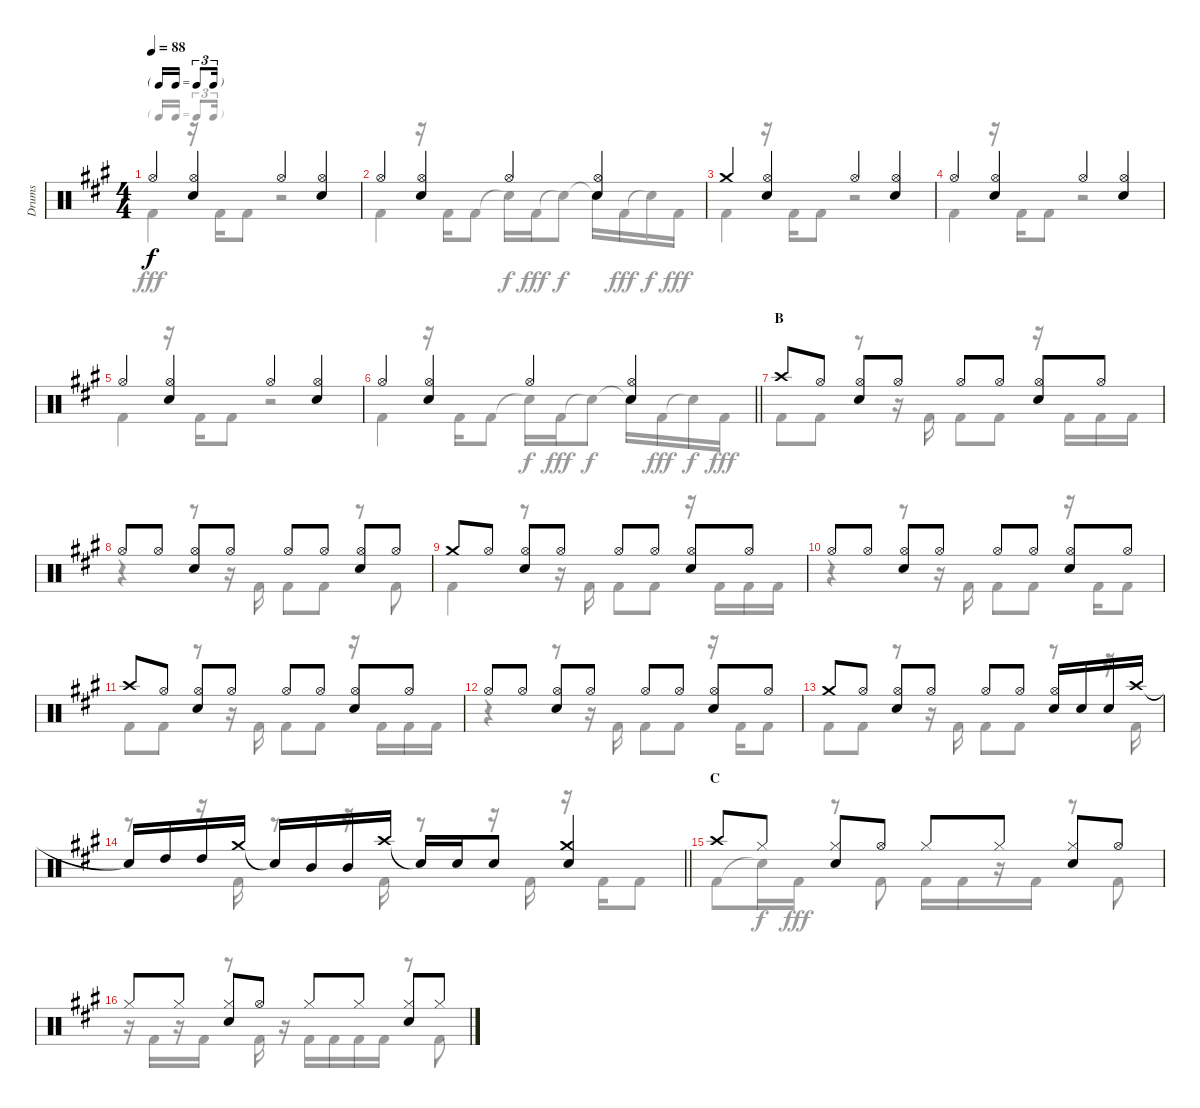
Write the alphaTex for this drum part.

\track ("Drums" "Drums") {instrument percussion}
\staff {score}
\articulation defaults
\voice
\ts (4 4)
\tf triplet16th
\tempo 88
\clef neutral
\ks a "Hi-Hat (open)".4{dy f}
("Hi-Hat (open)" "Snare (hit) 2").4 "Hi-Hat (open)".4 ("Hi-Hat (open)" "Snare (hit) 2").4 |
"Hi-Hat (open)".4 ("Hi-Hat (open)" "Snare (hit) 2").4 "Hi-Hat (open)".4 ("Hi-Hat (open)" "Snare (hit) 2").4 |
"Crash medium (hit)".4 ("Hi-Hat (open)" "Snare (hit) 2").4 "Hi-Hat (open)".4 ("Hi-Hat (open)" "Snare (hit) 2").4 |
"Hi-Hat (open)".4 ("Hi-Hat (open)" "Snare (hit) 2").4 "Hi-Hat (open)".4 ("Hi-Hat (open)" "Snare (hit) 2").4 |
"Hi-Hat (open)".4 ("Hi-Hat (open)" "Snare (hit) 2").4 "Hi-Hat (open)".4 ("Hi-Hat (open)" "Snare (hit) 2").4 |
\barLineRight lightlight "Hi-Hat (open)".4
("Hi-Hat (open)" "Snare (hit) 2").4 "Hi-Hat (open)".4 ("Hi-Hat (open)" "Snare (hit) 2").4 |
\section ("" "B")
"Crash high (hit)".8 "Hi-Hat (open)".8 ("Hi-Hat (open)" "Snare (hit) 2").8 "Hi-Hat (open)".8 "Hi-Hat (open)".8 "Hi-Hat (open)".8 ("Hi-Hat (open)" "Snare (hit) 2").8 "Hi-Hat (open)".8 |
"Hi-Hat (open)".8 "Hi-Hat (open)".8 ("Hi-Hat (open)" "Snare (hit) 2").8 "Hi-Hat (open)".8 "Hi-Hat (open)".8 "Hi-Hat (open)".8 ("Hi-Hat (open)" "Snare (hit) 2").8 "Hi-Hat (open)".8 |
"Crash medium (hit)".8 "Hi-Hat (open)".8 ("Hi-Hat (open)" "Snare (hit) 2").8 "Hi-Hat (open)".8 "Hi-Hat (open)".8 "Hi-Hat (open)".8 ("Hi-Hat (open)" "Snare (hit) 2").8 "Hi-Hat (open)".8 |
"Hi-Hat (open)".8 "Hi-Hat (open)".8 ("Hi-Hat (open)" "Snare (hit) 2").8 "Hi-Hat (open)".8 "Hi-Hat (open)".8 "Hi-Hat (open)".8 ("Hi-Hat (open)" "Snare (hit) 2").8 "Hi-Hat (open)".8 |
"Crash high (hit)".8 "Hi-Hat (open)".8 ("Hi-Hat (open)" "Snare (hit) 2").8 "Hi-Hat (open)".8 "Hi-Hat (open)".8 "Hi-Hat (open)".8 ("Hi-Hat (open)" "Snare (hit) 2").8 "Hi-Hat (open)".8 |
"Hi-Hat (open)".8 "Hi-Hat (open)".8 ("Hi-Hat (open)" "Snare (hit) 2").8 "Hi-Hat (open)".8 "Hi-Hat (open)".8 "Hi-Hat (open)".8 ("Hi-Hat (open)" "Snare (hit) 2").8 "Hi-Hat (open)".8 |
"Crash medium (hit)".8 "Hi-Hat (open)".8 ("Hi-Hat (open)" "Snare (hit) 2").8 "Hi-Hat (open)".8 "Hi-Hat (open)".8 "Hi-Hat (open)".8 ("Hi-Hat (open)" "Snare (hit) 2").16 "Snare (hit) 2".16 "Snare (hit) 2".16 "Crash high (hit)".16 |
\barLineRight lightlight "Snare (hit)"{t}.16 "High Tom (hit)".16 "High Tom (hit)".16 "Crash medium (hit)".16 "Snare (hit)"{t}.16 "Mid Tom (hit)".16 "Mid Tom (hit)".16 "Crash high (hit)".16 "Snare (hit)"{t}.16 "Snare (hit) 2".16 "Snare (hit) 2".8
("Crash medium (hit)" "Snare (hit) 2").4 |
\section ("" "C")
"Crash high (hit)".8 "Hi-Hat (closed)".8 ("Hi-Hat (closed)" "Snare (hit) 2").8 "Hi-Hat (open)".8 "Hi-Hat (closed)".8 "Hi-Hat (closed)".8 ("Hi-Hat (closed)" "Snare (hit) 2").8 "Hi-Hat (open)".8 |
"Hi-Hat (closed)".8 "Hi-Hat (closed)".8 ("Hi-Hat (closed)" "Snare (hit) 2").8 "Hi-Hat (open)".8 "Hi-Hat (closed)".8 "Hi-Hat (closed)".8 ("Hi-Hat (closed)" "Snare (hit) 2").8 "Hi-Hat (closed)".8
\voice
\clef neutral
\ottava regular
\simile none
\ks a "Kick (hit) 2".4{dy fff}
r.16 "Kick (hit) 2".16 "Kick (hit) 2".8 r.2 |
"Kick (hit) 2".4 r.16 "Kick (hit) 2".16 "Kick (hit) 2".8 "Snare (hit)"{t}.16{dy f} "Kick (hit) 2".16{dy fff} "Snare (hit)"{t}.8{dy f} "Snare (hit)"{t}.16 "Kick (hit) 2".16{dy fff} "Snare (hit)"{t}.16{dy f} "Kick (hit) 2".16{dy fff} |
"Kick (hit) 2".4 r.16 "Kick (hit) 2".16 "Kick (hit) 2".8 r.2 |
"Kick (hit) 2".4 r.16 "Kick (hit) 2".16 "Kick (hit) 2".8 r.2 |
"Kick (hit) 2".4 r.16 "Kick (hit) 2".16 "Kick (hit) 2".8 r.2 |
\barLineRight lightlight "Kick (hit) 2".4
r.16 "Kick (hit) 2".16 "Kick (hit) 2".8 "Snare (hit)"{t}.16{dy f} "Kick (hit) 2".16{dy fff} "Snare (hit)"{t}.8{dy f} "Snare (hit)"{t}.16 "Kick (hit) 2".16{dy fff} "Snare (hit)"{t}.16{dy f} "Kick (hit) 2".16{dy fff} |
"Kick (hit) 2".8 "Kick (hit) 2".8 r.8 r.16 "Kick (hit) 2".16 "Kick (hit) 2".8 "Kick (hit) 2".8 r.16 "Kick (hit) 2".16 "Kick (hit) 2".16 "Kick (hit) 2".16 |
r.4 r.8 r.16 "Kick (hit) 2".16 "Kick (hit) 2".8 "Kick (hit) 2".8 r.8 "Kick (hit) 2".8 |
"Kick (hit) 2".4 r.8 r.16 "Kick (hit) 2".16 "Kick (hit) 2".8 "Kick (hit) 2".8 r.16 "Kick (hit) 2".16 "Kick (hit) 2".16 "Kick (hit) 2".16 |
r.4 r.8 r.16 "Kick (hit) 2".16 "Kick (hit) 2".8 "Kick (hit) 2".8 r.16 "Kick (hit) 2".16 "Kick (hit) 2".8 |
"Kick (hit) 2".8 "Kick (hit) 2".8 r.8 r.16 "Kick (hit) 2".16 "Kick (hit) 2".8 "Kick (hit) 2".8 r.16 "Kick (hit) 2".16 "Kick (hit) 2".16 "Kick (hit) 2".16 |
r.4 r.8 r.16 "Kick (hit) 2".16 "Kick (hit) 2".8 "Kick (hit) 2".8 r.16 "Kick (hit) 2".16 "Kick (hit) 2".8 |
"Kick (hit) 2".8 "Kick (hit) 2".8 r.8 r.16 "Kick (hit) 2".16 "Kick (hit) 2".8 "Kick (hit) 2".8 r.8 r.16 "Kick (hit) 2".16 |
\barLineRight lightlight
r.8 r.16 "Kick (hit) 2".16 r.8 r.16 "Kick (hit) 2".16 r.8 r.16 "Kick (hit) 2".16 r.16 "Kick (hit) 2".16 "Kick (hit) 2".8 |
"Kick (hit) 2".8 "Snare (hit)"{t}.16{dy f} "Kick (hit) 2".16{dy fff} r.8 "Kick (hit) 2".8 "Kick (hit) 2".16 "Kick (hit) 2".16 r.16 "Kick (hit) 2".16 r.8 "Kick (hit) 2".8 |
r.16 "Kick (hit) 2".16 r.16 "Kick (hit) 2".16 r.8 "Kick (hit) 2".16 r.16 "Kick (hit) 2".16 "Kick (hit) 2".16 "Kick (hit) 2".16 "Kick (hit) 2".16 r.8 "Kick (hit) 2".8
